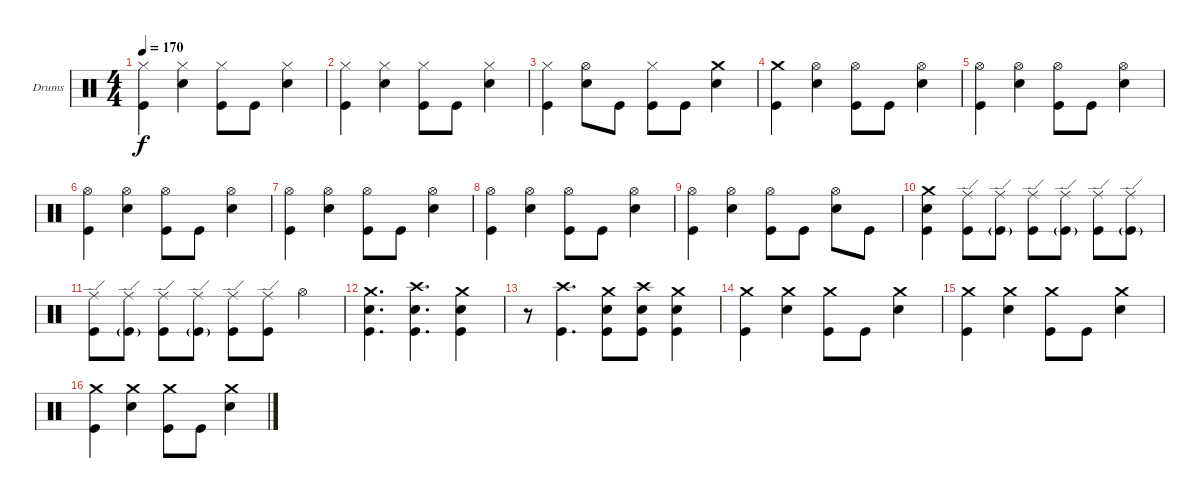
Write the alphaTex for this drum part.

\defaultSystemsLayout 4
\bracketExtendMode groupsimilarinstruments
\firstSystemTrackNameOrientation horizontal
\otherSystemsTrackNameOrientation horizontal
\track ("Drumkit" "Drums") {instrument percussion}
\staff {score}
\articulation defaults
\ts (4 4)
\tempo 170
\clef neutral
\ks c
("Hi-Hat (closed)" "Kick (hit)").4{dy f} ("Hi-Hat (closed)" "Snare (hit) 2").4 ("Hi-Hat (closed)" "Kick (hit)").8 "Kick (hit)".8 ("Hi-Hat (closed)" "Snare (hit) 2").4 |
("Hi-Hat (closed)" "Kick (hit)").4 ("Hi-Hat (closed)" "Snare (hit) 2").4 ("Hi-Hat (closed)" "Kick (hit)").8 "Kick (hit)".8 ("Hi-Hat (closed)" "Snare (hit) 2").4 |
("Hi-Hat (closed)" "Kick (hit)").4 ("Hi-Hat (open)" "Snare (hit) 2").8 "Kick (hit)".8 ("Hi-Hat (closed)" "Kick (hit)").8 "Kick (hit)".8 ("Crash medium (hit)" "Snare (hit) 2").4 |
("Crash medium (hit)" "Kick (hit)").4 ("Hi-Hat (open)" "Snare (hit) 2").4 ("Hi-Hat (open)" "Kick (hit)").8 "Kick (hit)".8 ("Hi-Hat (open)" "Snare (hit) 2").4 |
("Hi-Hat (open)" "Kick (hit)").4 ("Hi-Hat (open)" "Snare (hit) 2").4 ("Hi-Hat (open)" "Kick (hit)").8 "Kick (hit)".8 ("Hi-Hat (open)" "Snare (hit) 2").4 |
("Hi-Hat (open)" "Kick (hit)").4 ("Hi-Hat (open)" "Snare (hit) 2").4 ("Hi-Hat (open)" "Kick (hit)").8 "Kick (hit)".8 ("Hi-Hat (open)" "Snare (hit) 2").4 |
("Hi-Hat (open)" "Kick (hit)").4 ("Hi-Hat (open)" "Snare (hit) 2").4 ("Hi-Hat (open)" "Kick (hit)").8 "Kick (hit)".8 ("Hi-Hat (open)" "Snare (hit) 2").4 |
("Hi-Hat (open)" "Kick (hit)").4 ("Hi-Hat (open)" "Snare (hit) 2").4 ("Hi-Hat (open)" "Kick (hit)").8 "Kick (hit)".8 ("Hi-Hat (open)" "Snare (hit) 2").4 |
("Hi-Hat (open)" "Kick (hit)").4 ("Hi-Hat (open)" "Snare (hit) 2").4 ("Hi-Hat (open)" "Kick (hit)").8 "Kick (hit)".8 ("Hi-Hat (open)" "Snare (hit) 2").8 "Kick (hit)".8 |
("Crash medium (hit)" "Snare (hit) 2" "Kick (hit)").4 ("Ride (edge)" "Kick (hit)").8 ("Ride (edge)" "Kick (hit)"{g}).8 ("Ride (edge)" "Kick (hit)").8 ("Ride (edge)" "Kick (hit)"{g}).8 ("Ride (edge)" "Kick (hit)").8 ("Ride (edge)" "Kick (hit)"{g}).8 |
("Ride (edge)" "Kick (hit)").8 ("Ride (edge)" "Kick (hit)"{g}).8 ("Ride (edge)" "Kick (hit)").8 ("Ride (edge)" "Kick (hit)"{g}).8 ("Ride (edge)" "Kick (hit)").8 ("Ride (edge)" "Kick (hit)").8 "Hi-Hat (open)".4 |
("Crash medium (hit)" "Snare (hit) 2" "Kick (hit)").4{d} ("Crash high (hit)" "Snare (hit) 2" "Kick (hit)").4{d} ("Crash medium (hit)" "Snare (hit) 2" "Kick (hit)").4 |
r.8 ("Crash high (hit)" "Kick (hit)").4{d} ("Crash medium (hit)" "Snare (hit) 2" "Kick (hit)").8 ("Crash high (hit)" "Snare (hit) 2" "Kick (hit)").8 ("Crash medium (hit)" "Snare (hit) 2" "Kick (hit)").4 |
("Crash medium (hit)" "Kick (hit)").4 ("Crash medium (hit)" "Snare (hit) 2").4 ("Crash medium (hit)" "Kick (hit)").8 "Kick (hit)".8 ("Crash medium (hit)" "Snare (hit) 2").4 |
("Crash medium (hit)" "Kick (hit)").4 ("Crash medium (hit)" "Snare (hit) 2").4 ("Crash medium (hit)" "Kick (hit)").8 "Kick (hit)".8 ("Crash medium (hit)" "Snare (hit) 2").4 |
("Crash medium (hit)" "Kick (hit)").4 ("Crash medium (hit)" "Snare (hit) 2").4 ("Crash medium (hit)" "Kick (hit)").8 "Kick (hit)".8 ("Crash medium (hit)" "Snare (hit) 2").4
